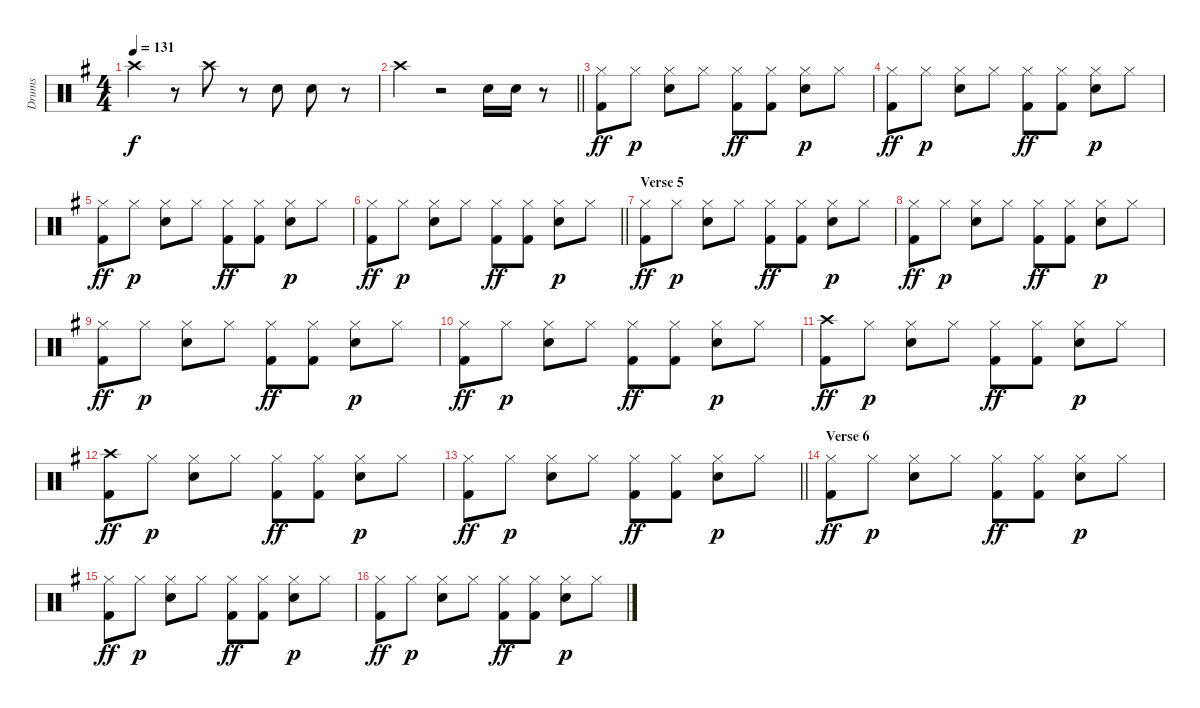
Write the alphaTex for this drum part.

\track ("Drums" "Drums") {instrument percussion}
\staff {score}
\articulation defaults
\ts (4 4)
\tempo 131
\clef neutral
\ks g "Crash high (hit)".4{dy f}
r.8 "Crash high (hit)".8 r.8 "Snare (hit) 2".8 "Snare (hit) 2".8 r.8 |
\barLineRight lightlight "Crash high (hit)".4
r.2 "Snare (hit) 2".16 "Snare (hit) 2".16 r.8 |
("Hi-Hat (closed)" "Kick (hit) 2").8{dy ff} "Hi-Hat (closed)".8{dy p} ("Hi-Hat (closed)" "Snare (hit) 2").8 "Hi-Hat (closed)".8 ("Hi-Hat (closed)" "Kick (hit) 2").8{dy ff} ("Hi-Hat (closed)" "Kick (hit) 2").8 ("Hi-Hat (closed)" "Snare (hit) 2").8{dy p} "Hi-Hat (closed)".8 |
("Hi-Hat (closed)" "Kick (hit) 2").8{dy ff} "Hi-Hat (closed)".8{dy p} ("Hi-Hat (closed)" "Snare (hit) 2").8 "Hi-Hat (closed)".8 ("Hi-Hat (closed)" "Kick (hit) 2").8{dy ff} ("Hi-Hat (closed)" "Kick (hit) 2").8 ("Hi-Hat (closed)" "Snare (hit) 2").8{dy p} "Hi-Hat (closed)".8 |
("Hi-Hat (closed)" "Kick (hit) 2").8{dy ff} "Hi-Hat (closed)".8{dy p} ("Hi-Hat (closed)" "Snare (hit) 2").8 "Hi-Hat (closed)".8 ("Hi-Hat (closed)" "Kick (hit) 2").8{dy ff} ("Hi-Hat (closed)" "Kick (hit) 2").8 ("Hi-Hat (closed)" "Snare (hit) 2").8{dy p} "Hi-Hat (closed)".8 |
\barLineRight lightlight
("Hi-Hat (closed)" "Kick (hit) 2").8{dy ff} "Hi-Hat (closed)".8{dy p} ("Hi-Hat (closed)" "Snare (hit) 2").8 "Hi-Hat (closed)".8 ("Hi-Hat (closed)" "Kick (hit) 2").8{dy ff} ("Hi-Hat (closed)" "Kick (hit) 2").8 ("Hi-Hat (closed)" "Snare (hit) 2").8{dy p} "Hi-Hat (closed)".8 |
\section ("" "Verse 5")
("Hi-Hat (closed)" "Kick (hit) 2").8{dy ff} "Hi-Hat (closed)".8{dy p} ("Hi-Hat (closed)" "Snare (hit) 2").8 "Hi-Hat (closed)".8 ("Hi-Hat (closed)" "Kick (hit) 2").8{dy ff} ("Hi-Hat (closed)" "Kick (hit) 2").8 ("Hi-Hat (closed)" "Snare (hit) 2").8{dy p} "Hi-Hat (closed)".8 |
("Hi-Hat (closed)" "Kick (hit) 2").8{dy ff} "Hi-Hat (closed)".8{dy p} ("Hi-Hat (closed)" "Snare (hit) 2").8 "Hi-Hat (closed)".8 ("Hi-Hat (closed)" "Kick (hit) 2").8{dy ff} ("Hi-Hat (closed)" "Kick (hit) 2").8 ("Hi-Hat (closed)" "Snare (hit) 2").8{dy p} "Hi-Hat (closed)".8 |
("Hi-Hat (closed)" "Kick (hit) 2").8{dy ff} "Hi-Hat (closed)".8{dy p} ("Hi-Hat (closed)" "Snare (hit) 2").8 "Hi-Hat (closed)".8 ("Hi-Hat (closed)" "Kick (hit) 2").8{dy ff} ("Hi-Hat (closed)" "Kick (hit) 2").8 ("Hi-Hat (closed)" "Snare (hit) 2").8{dy p} "Hi-Hat (closed)".8 |
("Hi-Hat (closed)" "Kick (hit) 2").8{dy ff} "Hi-Hat (closed)".8{dy p} ("Hi-Hat (closed)" "Snare (hit) 2").8 "Hi-Hat (closed)".8 ("Hi-Hat (closed)" "Kick (hit) 2").8{dy ff} ("Hi-Hat (closed)" "Kick (hit) 2").8 ("Hi-Hat (closed)" "Snare (hit) 2").8{dy p} "Hi-Hat (closed)".8 |
("Crash high (hit)" "Kick (hit) 2").8{dy ff} "Hi-Hat (closed)".8{dy p} ("Hi-Hat (closed)" "Snare (hit) 2").8 "Hi-Hat (closed)".8 ("Hi-Hat (closed)" "Kick (hit) 2").8{dy ff} ("Hi-Hat (closed)" "Kick (hit) 2").8 ("Hi-Hat (closed)" "Snare (hit) 2").8{dy p} "Hi-Hat (closed)".8 |
("Crash high (hit)" "Kick (hit) 2").8{dy ff} "Hi-Hat (closed)".8{dy p} ("Hi-Hat (closed)" "Snare (hit) 2").8 "Hi-Hat (closed)".8 ("Hi-Hat (closed)" "Kick (hit) 2").8{dy ff} ("Hi-Hat (closed)" "Kick (hit) 2").8 ("Hi-Hat (closed)" "Snare (hit) 2").8{dy p} "Hi-Hat (closed)".8 |
\barLineRight lightlight
("Hi-Hat (closed)" "Kick (hit) 2").8{dy ff} "Hi-Hat (closed)".8{dy p} ("Hi-Hat (closed)" "Snare (hit) 2").8 "Hi-Hat (closed)".8 ("Hi-Hat (closed)" "Kick (hit) 2").8{dy ff} ("Hi-Hat (closed)" "Kick (hit) 2").8 ("Hi-Hat (closed)" "Snare (hit) 2").8{dy p} "Hi-Hat (closed)".8 |
\section ("" "Verse 6")
("Hi-Hat (closed)" "Kick (hit) 2").8{dy ff} "Hi-Hat (closed)".8{dy p} ("Hi-Hat (closed)" "Snare (hit) 2").8 "Hi-Hat (closed)".8 ("Hi-Hat (closed)" "Kick (hit) 2").8{dy ff} ("Hi-Hat (closed)" "Kick (hit) 2").8 ("Hi-Hat (closed)" "Snare (hit) 2").8{dy p} "Hi-Hat (closed)".8 |
("Hi-Hat (closed)" "Kick (hit) 2").8{dy ff} "Hi-Hat (closed)".8{dy p} ("Hi-Hat (closed)" "Snare (hit) 2").8 "Hi-Hat (closed)".8 ("Hi-Hat (closed)" "Kick (hit) 2").8{dy ff} ("Hi-Hat (closed)" "Kick (hit) 2").8 ("Hi-Hat (closed)" "Snare (hit) 2").8{dy p} "Hi-Hat (closed)".8 |
("Hi-Hat (closed)" "Kick (hit) 2").8{dy ff} "Hi-Hat (closed)".8{dy p} ("Hi-Hat (closed)" "Snare (hit) 2").8 "Hi-Hat (closed)".8 ("Hi-Hat (closed)" "Kick (hit) 2").8{dy ff} ("Hi-Hat (closed)" "Kick (hit) 2").8 ("Hi-Hat (closed)" "Snare (hit) 2").8{dy p} "Hi-Hat (closed)".8
